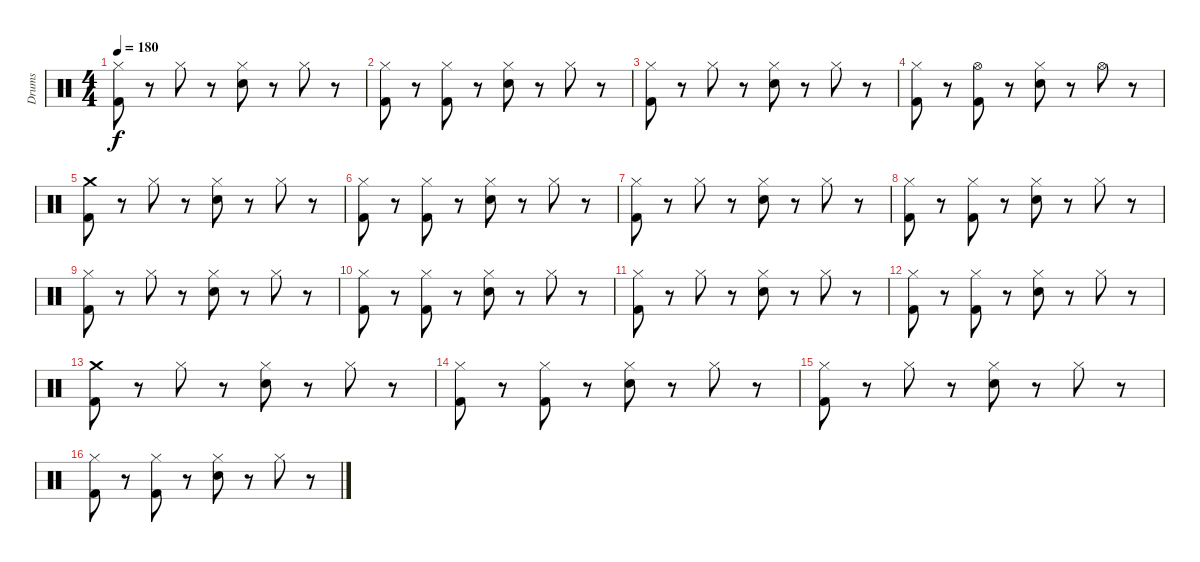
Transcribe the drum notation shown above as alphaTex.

\track ("Drums" "Drums") {instrument percussion}
\staff {score}
\articulation defaults
\ts (4 4)
\tempo 180
\clef neutral
\ks c
("Hi-Hat (closed)" "Kick (hit) 2").8{dy f} r.8 "Hi-Hat (closed)".8 r.8 ("Hi-Hat (closed)" "Electric Snare (hit)").8 r.8 "Hi-Hat (closed)".8 r.8 |
("Hi-Hat (closed)" "Kick (hit) 2").8 r.8 ("Hi-Hat (closed)" "Kick (hit) 2").8 r.8 ("Hi-Hat (closed)" "Electric Snare (hit)").8 r.8 "Hi-Hat (closed)".8 r.8 |
("Hi-Hat (closed)" "Kick (hit) 2").8 r.8 "Hi-Hat (closed)".8 r.8 ("Hi-Hat (closed)" "Electric Snare (hit)").8 r.8 "Hi-Hat (closed)".8 r.8 |
("Hi-Hat (closed)" "Kick (hit) 2").8 r.8 ("Hi-Hat (open)" "Kick (hit) 2").8 r.8 ("Hi-Hat (closed)" "Electric Snare (hit)").8 r.8 "Hi-Hat (open)".8 r.8 |
("Crash medium (hit)" "Kick (hit) 2").8 r.8 "Hi-Hat (closed)".8 r.8 ("Hi-Hat (closed)" "Electric Snare (hit)").8 r.8 "Hi-Hat (closed)".8 r.8 |
("Hi-Hat (closed)" "Kick (hit) 2").8 r.8 ("Hi-Hat (closed)" "Kick (hit) 2").8 r.8 ("Hi-Hat (closed)" "Electric Snare (hit)").8 r.8 "Hi-Hat (closed)".8 r.8 |
("Hi-Hat (closed)" "Kick (hit) 2").8 r.8 "Hi-Hat (closed)".8 r.8 ("Hi-Hat (closed)" "Electric Snare (hit)").8 r.8 "Hi-Hat (closed)".8 r.8 |
("Hi-Hat (closed)" "Kick (hit) 2").8 r.8 ("Hi-Hat (closed)" "Kick (hit) 2").8 r.8 ("Hi-Hat (closed)" "Electric Snare (hit)").8 r.8 "Hi-Hat (closed)".8 r.8 |
("Hi-Hat (closed)" "Kick (hit) 2").8 r.8 "Hi-Hat (closed)".8 r.8 ("Hi-Hat (closed)" "Electric Snare (hit)").8 r.8 "Hi-Hat (closed)".8 r.8 |
("Hi-Hat (closed)" "Kick (hit) 2").8 r.8 ("Hi-Hat (closed)" "Kick (hit) 2").8 r.8 ("Hi-Hat (closed)" "Electric Snare (hit)").8 r.8 "Hi-Hat (closed)".8 r.8 |
("Hi-Hat (closed)" "Kick (hit) 2").8 r.8 "Hi-Hat (closed)".8 r.8 ("Hi-Hat (closed)" "Electric Snare (hit)").8 r.8 "Hi-Hat (closed)".8 r.8 |
("Hi-Hat (closed)" "Kick (hit) 2").8 r.8 ("Hi-Hat (closed)" "Kick (hit) 2").8 r.8 ("Hi-Hat (closed)" "Electric Snare (hit)").8 r.8 "Hi-Hat (closed)".8 r.8 |
("Crash medium (hit)" "Kick (hit) 2").8 r.8 "Hi-Hat (closed)".8 r.8 ("Hi-Hat (closed)" "Electric Snare (hit)").8 r.8 "Hi-Hat (closed)".8 r.8 |
("Hi-Hat (closed)" "Kick (hit) 2").8 r.8 ("Hi-Hat (closed)" "Kick (hit) 2").8 r.8 ("Hi-Hat (closed)" "Electric Snare (hit)").8 r.8 "Hi-Hat (closed)".8 r.8 |
("Hi-Hat (closed)" "Kick (hit) 2").8 r.8 "Hi-Hat (closed)".8 r.8 ("Hi-Hat (closed)" "Electric Snare (hit)").8 r.8 "Hi-Hat (closed)".8 r.8 |
("Hi-Hat (closed)" "Kick (hit) 2").8 r.8 ("Hi-Hat (closed)" "Kick (hit) 2").8 r.8 ("Hi-Hat (closed)" "Electric Snare (hit)").8 r.8 "Hi-Hat (closed)".8 r.8
